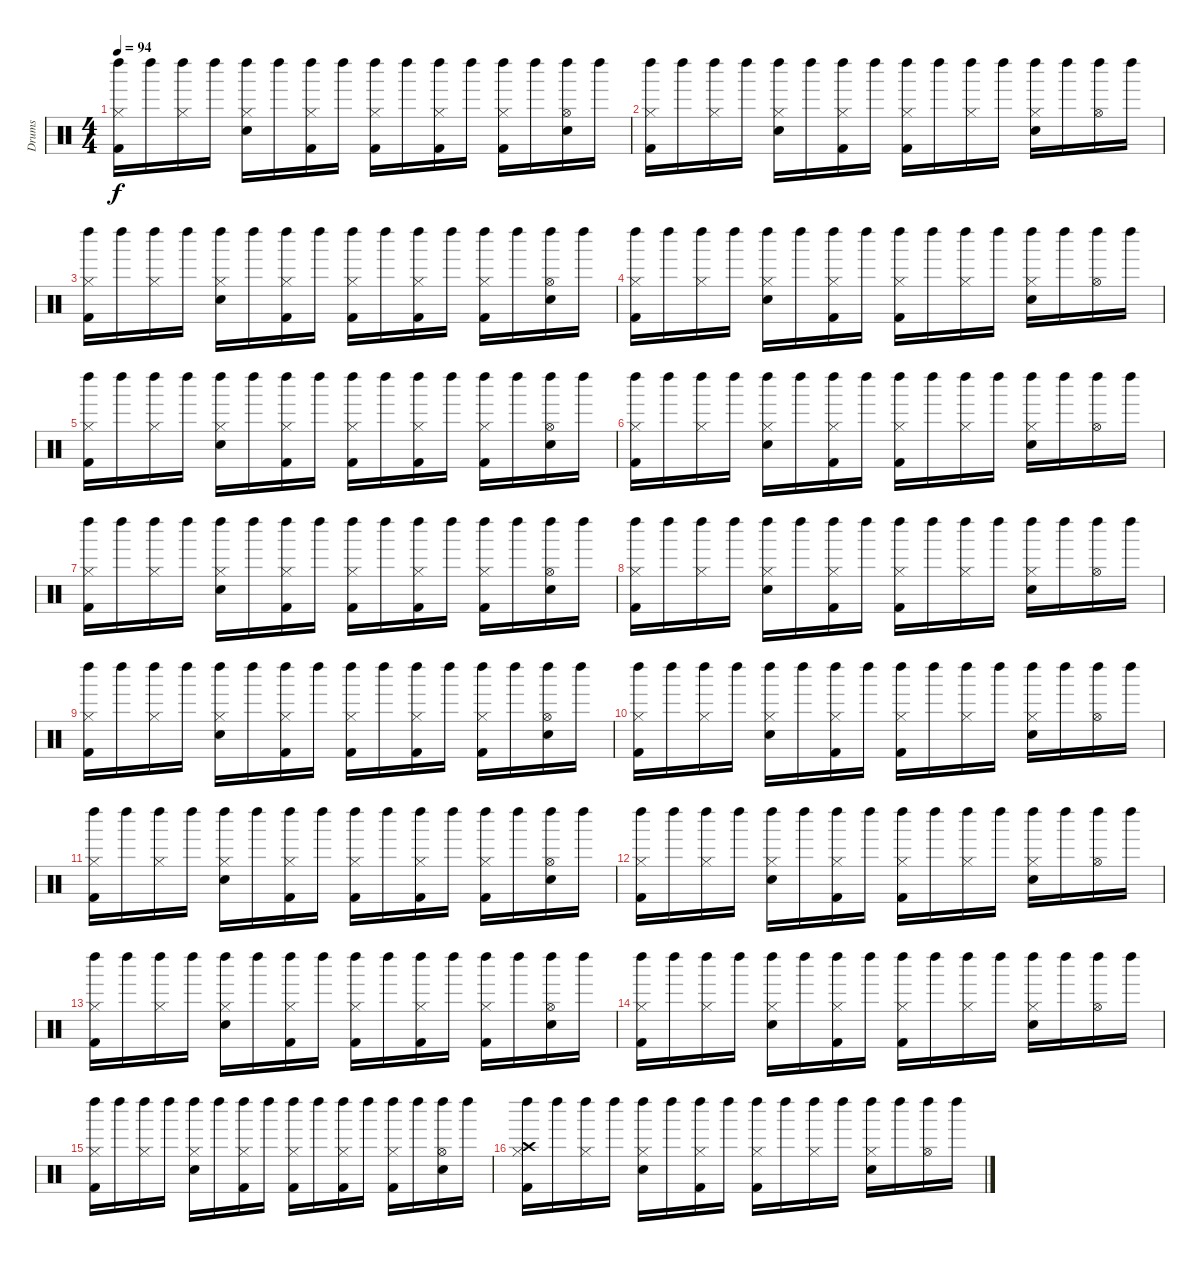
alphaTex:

\track ("Drums" "Drums") {instrument percussion}
\staff {score}
\articulation defaults
\ts (4 4)
\tempo 94
\clef neutral
\ks c
("Left Maraca (hit)" "Hi-Hat (closed)" "Kick (hit) 2").16{dy f} "Left Maraca (hit)".16 ("Left Maraca (hit)" "Hi-Hat (closed)").16 "Left Maraca (hit)".16 ("Left Maraca (hit)" "Hi-Hat (closed)" "Snare (hit) 2").16 "Left Maraca (hit)".16 ("Left Maraca (hit)" "Hi-Hat (closed)" "Kick (hit) 2").16 "Left Maraca (hit)".16 ("Left Maraca (hit)" "Hi-Hat (closed)" "Kick (hit) 2").16 "Left Maraca (hit)".16 ("Left Maraca (hit)" "Hi-Hat (closed)" "Kick (hit) 2").16 "Left Maraca (hit)".16 ("Left Maraca (hit)" "Hi-Hat (closed)" "Kick (hit) 2").16 "Left Maraca (hit)".16 ("Left Maraca (hit)" "Hi-Hat (open)" "Snare (hit) 2").16 "Left Maraca (hit)".16 |
("Left Maraca (hit)" "Hi-Hat (closed)" "Kick (hit) 2").16 "Left Maraca (hit)".16 ("Left Maraca (hit)" "Hi-Hat (closed)").16 "Left Maraca (hit)".16 ("Left Maraca (hit)" "Hi-Hat (closed)" "Snare (hit) 2").16 "Left Maraca (hit)".16 ("Left Maraca (hit)" "Hi-Hat (closed)" "Kick (hit) 2").16 "Left Maraca (hit)".16 ("Left Maraca (hit)" "Hi-Hat (closed)" "Kick (hit) 2").16 "Left Maraca (hit)".16 ("Left Maraca (hit)" "Hi-Hat (closed)").16 "Left Maraca (hit)".16 ("Left Maraca (hit)" "Hi-Hat (closed)" "Snare (hit) 2").16 "Left Maraca (hit)".16 ("Left Maraca (hit)" "Hi-Hat (open)").16 "Left Maraca (hit)".16 |
("Left Maraca (hit)" "Hi-Hat (closed)" "Kick (hit) 2").16 "Left Maraca (hit)".16 ("Left Maraca (hit)" "Hi-Hat (closed)").16 "Left Maraca (hit)".16 ("Left Maraca (hit)" "Hi-Hat (closed)" "Snare (hit) 2").16 "Left Maraca (hit)".16 ("Left Maraca (hit)" "Hi-Hat (closed)" "Kick (hit) 2").16 "Left Maraca (hit)".16 ("Left Maraca (hit)" "Hi-Hat (closed)" "Kick (hit) 2").16 "Left Maraca (hit)".16 ("Left Maraca (hit)" "Hi-Hat (closed)" "Kick (hit) 2").16 "Left Maraca (hit)".16 ("Left Maraca (hit)" "Hi-Hat (closed)" "Kick (hit) 2").16 "Left Maraca (hit)".16 ("Left Maraca (hit)" "Hi-Hat (open)" "Snare (hit) 2").16 "Left Maraca (hit)".16 |
("Left Maraca (hit)" "Hi-Hat (closed)" "Kick (hit) 2").16 "Left Maraca (hit)".16 ("Left Maraca (hit)" "Hi-Hat (closed)").16 "Left Maraca (hit)".16 ("Left Maraca (hit)" "Hi-Hat (closed)" "Snare (hit) 2").16 "Left Maraca (hit)".16 ("Left Maraca (hit)" "Hi-Hat (closed)" "Kick (hit) 2").16 "Left Maraca (hit)".16 ("Left Maraca (hit)" "Hi-Hat (closed)" "Kick (hit) 2").16 "Left Maraca (hit)".16 ("Left Maraca (hit)" "Hi-Hat (closed)").16 "Left Maraca (hit)".16 ("Left Maraca (hit)" "Hi-Hat (closed)" "Snare (hit) 2").16 "Left Maraca (hit)".16 ("Left Maraca (hit)" "Hi-Hat (open)").16 "Left Maraca (hit)".16 |
("Left Maraca (hit)" "Hi-Hat (closed)" "Kick (hit) 2").16 "Left Maraca (hit)".16 ("Left Maraca (hit)" "Hi-Hat (closed)").16 "Left Maraca (hit)".16 ("Left Maraca (hit)" "Hi-Hat (closed)" "Snare (hit) 2").16 "Left Maraca (hit)".16 ("Left Maraca (hit)" "Hi-Hat (closed)" "Kick (hit) 2").16 "Left Maraca (hit)".16 ("Left Maraca (hit)" "Hi-Hat (closed)" "Kick (hit) 2").16 "Left Maraca (hit)".16 ("Left Maraca (hit)" "Hi-Hat (closed)" "Kick (hit) 2").16 "Left Maraca (hit)".16 ("Left Maraca (hit)" "Hi-Hat (closed)" "Kick (hit) 2").16 "Left Maraca (hit)".16 ("Left Maraca (hit)" "Hi-Hat (open)" "Snare (hit) 2").16 "Left Maraca (hit)".16 |
("Left Maraca (hit)" "Hi-Hat (closed)" "Kick (hit) 2").16 "Left Maraca (hit)".16 ("Left Maraca (hit)" "Hi-Hat (closed)").16 "Left Maraca (hit)".16 ("Left Maraca (hit)" "Hi-Hat (closed)" "Snare (hit) 2").16 "Left Maraca (hit)".16 ("Left Maraca (hit)" "Hi-Hat (closed)" "Kick (hit) 2").16 "Left Maraca (hit)".16 ("Left Maraca (hit)" "Hi-Hat (closed)" "Kick (hit) 2").16 "Left Maraca (hit)".16 ("Left Maraca (hit)" "Hi-Hat (closed)").16 "Left Maraca (hit)".16 ("Left Maraca (hit)" "Hi-Hat (closed)" "Snare (hit) 2").16 "Left Maraca (hit)".16 ("Left Maraca (hit)" "Hi-Hat (open)").16 "Left Maraca (hit)".16 |
("Left Maraca (hit)" "Hi-Hat (closed)" "Kick (hit) 2").16 "Left Maraca (hit)".16 ("Left Maraca (hit)" "Hi-Hat (closed)").16 "Left Maraca (hit)".16 ("Left Maraca (hit)" "Hi-Hat (closed)" "Snare (hit) 2").16 "Left Maraca (hit)".16 ("Left Maraca (hit)" "Hi-Hat (closed)" "Kick (hit) 2").16 "Left Maraca (hit)".16 ("Left Maraca (hit)" "Hi-Hat (closed)" "Kick (hit) 2").16 "Left Maraca (hit)".16 ("Left Maraca (hit)" "Hi-Hat (closed)" "Kick (hit) 2").16 "Left Maraca (hit)".16 ("Left Maraca (hit)" "Hi-Hat (closed)" "Kick (hit) 2").16 "Left Maraca (hit)".16 ("Left Maraca (hit)" "Hi-Hat (open)" "Snare (hit) 2").16 "Left Maraca (hit)".16 |
("Left Maraca (hit)" "Hi-Hat (closed)" "Kick (hit) 2").16 "Left Maraca (hit)".16 ("Left Maraca (hit)" "Hi-Hat (closed)").16 "Left Maraca (hit)".16 ("Left Maraca (hit)" "Hi-Hat (closed)" "Snare (hit) 2").16 "Left Maraca (hit)".16 ("Left Maraca (hit)" "Hi-Hat (closed)" "Kick (hit) 2").16 "Left Maraca (hit)".16 ("Left Maraca (hit)" "Hi-Hat (closed)" "Kick (hit) 2").16 "Left Maraca (hit)".16 ("Left Maraca (hit)" "Hi-Hat (closed)").16 "Left Maraca (hit)".16 ("Left Maraca (hit)" "Hi-Hat (closed)" "Snare (hit) 2").16 "Left Maraca (hit)".16 ("Left Maraca (hit)" "Hi-Hat (open)").16 "Left Maraca (hit)".16 |
("Left Maraca (hit)" "Hi-Hat (closed)" "Kick (hit) 2").16 "Left Maraca (hit)".16 ("Left Maraca (hit)" "Hi-Hat (closed)").16 "Left Maraca (hit)".16 ("Left Maraca (hit)" "Hi-Hat (closed)" "Snare (hit) 2").16 "Left Maraca (hit)".16 ("Left Maraca (hit)" "Hi-Hat (closed)" "Kick (hit) 2").16 "Left Maraca (hit)".16 ("Left Maraca (hit)" "Hi-Hat (closed)" "Kick (hit) 2").16 "Left Maraca (hit)".16 ("Left Maraca (hit)" "Hi-Hat (closed)" "Kick (hit) 2").16 "Left Maraca (hit)".16 ("Left Maraca (hit)" "Hi-Hat (closed)" "Kick (hit) 2").16 "Left Maraca (hit)".16 ("Left Maraca (hit)" "Hi-Hat (open)" "Snare (hit) 2").16 "Left Maraca (hit)".16 |
("Left Maraca (hit)" "Hi-Hat (closed)" "Kick (hit) 2").16 "Left Maraca (hit)".16 ("Left Maraca (hit)" "Hi-Hat (closed)").16 "Left Maraca (hit)".16 ("Left Maraca (hit)" "Hi-Hat (closed)" "Snare (hit) 2").16 "Left Maraca (hit)".16 ("Left Maraca (hit)" "Hi-Hat (closed)" "Kick (hit) 2").16 "Left Maraca (hit)".16 ("Left Maraca (hit)" "Hi-Hat (closed)" "Kick (hit) 2").16 "Left Maraca (hit)".16 ("Left Maraca (hit)" "Hi-Hat (closed)").16 "Left Maraca (hit)".16 ("Left Maraca (hit)" "Hi-Hat (closed)" "Snare (hit) 2").16 "Left Maraca (hit)".16 ("Left Maraca (hit)" "Hi-Hat (open)").16 "Left Maraca (hit)".16 |
("Left Maraca (hit)" "Hi-Hat (closed)" "Kick (hit) 2").16 "Left Maraca (hit)".16 ("Left Maraca (hit)" "Hi-Hat (closed)").16 "Left Maraca (hit)".16 ("Left Maraca (hit)" "Hi-Hat (closed)" "Snare (hit) 2").16 "Left Maraca (hit)".16 ("Left Maraca (hit)" "Hi-Hat (closed)" "Kick (hit) 2").16 "Left Maraca (hit)".16 ("Left Maraca (hit)" "Hi-Hat (closed)" "Kick (hit) 2").16 "Left Maraca (hit)".16 ("Left Maraca (hit)" "Hi-Hat (closed)" "Kick (hit) 2").16 "Left Maraca (hit)".16 ("Left Maraca (hit)" "Hi-Hat (closed)" "Kick (hit) 2").16 "Left Maraca (hit)".16 ("Left Maraca (hit)" "Hi-Hat (open)" "Snare (hit) 2").16 "Left Maraca (hit)".16 |
("Left Maraca (hit)" "Hi-Hat (closed)" "Kick (hit) 2").16 "Left Maraca (hit)".16 ("Left Maraca (hit)" "Hi-Hat (closed)").16 "Left Maraca (hit)".16 ("Left Maraca (hit)" "Hi-Hat (closed)" "Snare (hit) 2").16 "Left Maraca (hit)".16 ("Left Maraca (hit)" "Hi-Hat (closed)" "Kick (hit) 2").16 "Left Maraca (hit)".16 ("Left Maraca (hit)" "Hi-Hat (closed)" "Kick (hit) 2").16 "Left Maraca (hit)".16 ("Left Maraca (hit)" "Hi-Hat (closed)").16 "Left Maraca (hit)".16 ("Left Maraca (hit)" "Hi-Hat (closed)" "Snare (hit) 2").16 "Left Maraca (hit)".16 ("Left Maraca (hit)" "Hi-Hat (open)").16 "Left Maraca (hit)".16 |
("Left Maraca (hit)" "Hi-Hat (closed)" "Kick (hit) 2").16 "Left Maraca (hit)".16 ("Left Maraca (hit)" "Hi-Hat (closed)").16 "Left Maraca (hit)".16 ("Left Maraca (hit)" "Hi-Hat (closed)" "Snare (hit) 2").16 "Left Maraca (hit)".16 ("Left Maraca (hit)" "Hi-Hat (closed)" "Kick (hit) 2").16 "Left Maraca (hit)".16 ("Left Maraca (hit)" "Hi-Hat (closed)" "Kick (hit) 2").16 "Left Maraca (hit)".16 ("Left Maraca (hit)" "Hi-Hat (closed)" "Kick (hit) 2").16 "Left Maraca (hit)".16 ("Left Maraca (hit)" "Hi-Hat (closed)" "Kick (hit) 2").16 "Left Maraca (hit)".16 ("Left Maraca (hit)" "Hi-Hat (open)" "Snare (hit) 2").16 "Left Maraca (hit)".16 |
("Left Maraca (hit)" "Hi-Hat (closed)" "Kick (hit) 2").16 "Left Maraca (hit)".16 ("Left Maraca (hit)" "Hi-Hat (closed)").16 "Left Maraca (hit)".16 ("Left Maraca (hit)" "Hi-Hat (closed)" "Snare (hit) 2").16 "Left Maraca (hit)".16 ("Left Maraca (hit)" "Hi-Hat (closed)" "Kick (hit) 2").16 "Left Maraca (hit)".16 ("Left Maraca (hit)" "Hi-Hat (closed)" "Kick (hit) 2").16 "Left Maraca (hit)".16 ("Left Maraca (hit)" "Hi-Hat (closed)").16 "Left Maraca (hit)".16 ("Left Maraca (hit)" "Hi-Hat (closed)" "Snare (hit) 2").16 "Left Maraca (hit)".16 ("Left Maraca (hit)" "Hi-Hat (open)").16 "Left Maraca (hit)".16 |
("Left Maraca (hit)" "Hi-Hat (closed)" "Kick (hit) 2").16 "Left Maraca (hit)".16 ("Left Maraca (hit)" "Hi-Hat (closed)").16 "Left Maraca (hit)".16 ("Left Maraca (hit)" "Hi-Hat (closed)" "Snare (hit) 2").16 "Left Maraca (hit)".16 ("Left Maraca (hit)" "Hi-Hat (closed)" "Kick (hit) 2").16 "Left Maraca (hit)".16 ("Left Maraca (hit)" "Hi-Hat (closed)" "Kick (hit) 2").16 "Left Maraca (hit)".16 ("Left Maraca (hit)" "Hi-Hat (closed)" "Kick (hit) 2").16 "Left Maraca (hit)".16 ("Left Maraca (hit)" "Hi-Hat (closed)" "Kick (hit) 2").16 "Left Maraca (hit)".16 ("Left Maraca (hit)" "Hi-Hat (open)" "Snare (hit) 2").16 "Left Maraca (hit)".16 |
("Crash high (hit)" "Left Maraca (hit)" "Hi-Hat (closed)" "Kick (hit) 2").16 "Left Maraca (hit)".16 ("Left Maraca (hit)" "Hi-Hat (closed)").16 "Left Maraca (hit)".16 ("Left Maraca (hit)" "Hi-Hat (closed)" "Snare (hit) 2").16 "Left Maraca (hit)".16 ("Left Maraca (hit)" "Hi-Hat (closed)" "Kick (hit) 2").16 "Left Maraca (hit)".16 ("Left Maraca (hit)" "Hi-Hat (closed)" "Kick (hit) 2").16 "Left Maraca (hit)".16 ("Left Maraca (hit)" "Hi-Hat (closed)").16 "Left Maraca (hit)".16 ("Left Maraca (hit)" "Hi-Hat (closed)" "Snare (hit) 2").16 "Left Maraca (hit)".16 ("Left Maraca (hit)" "Hi-Hat (open)").16 "Left Maraca (hit)".16
